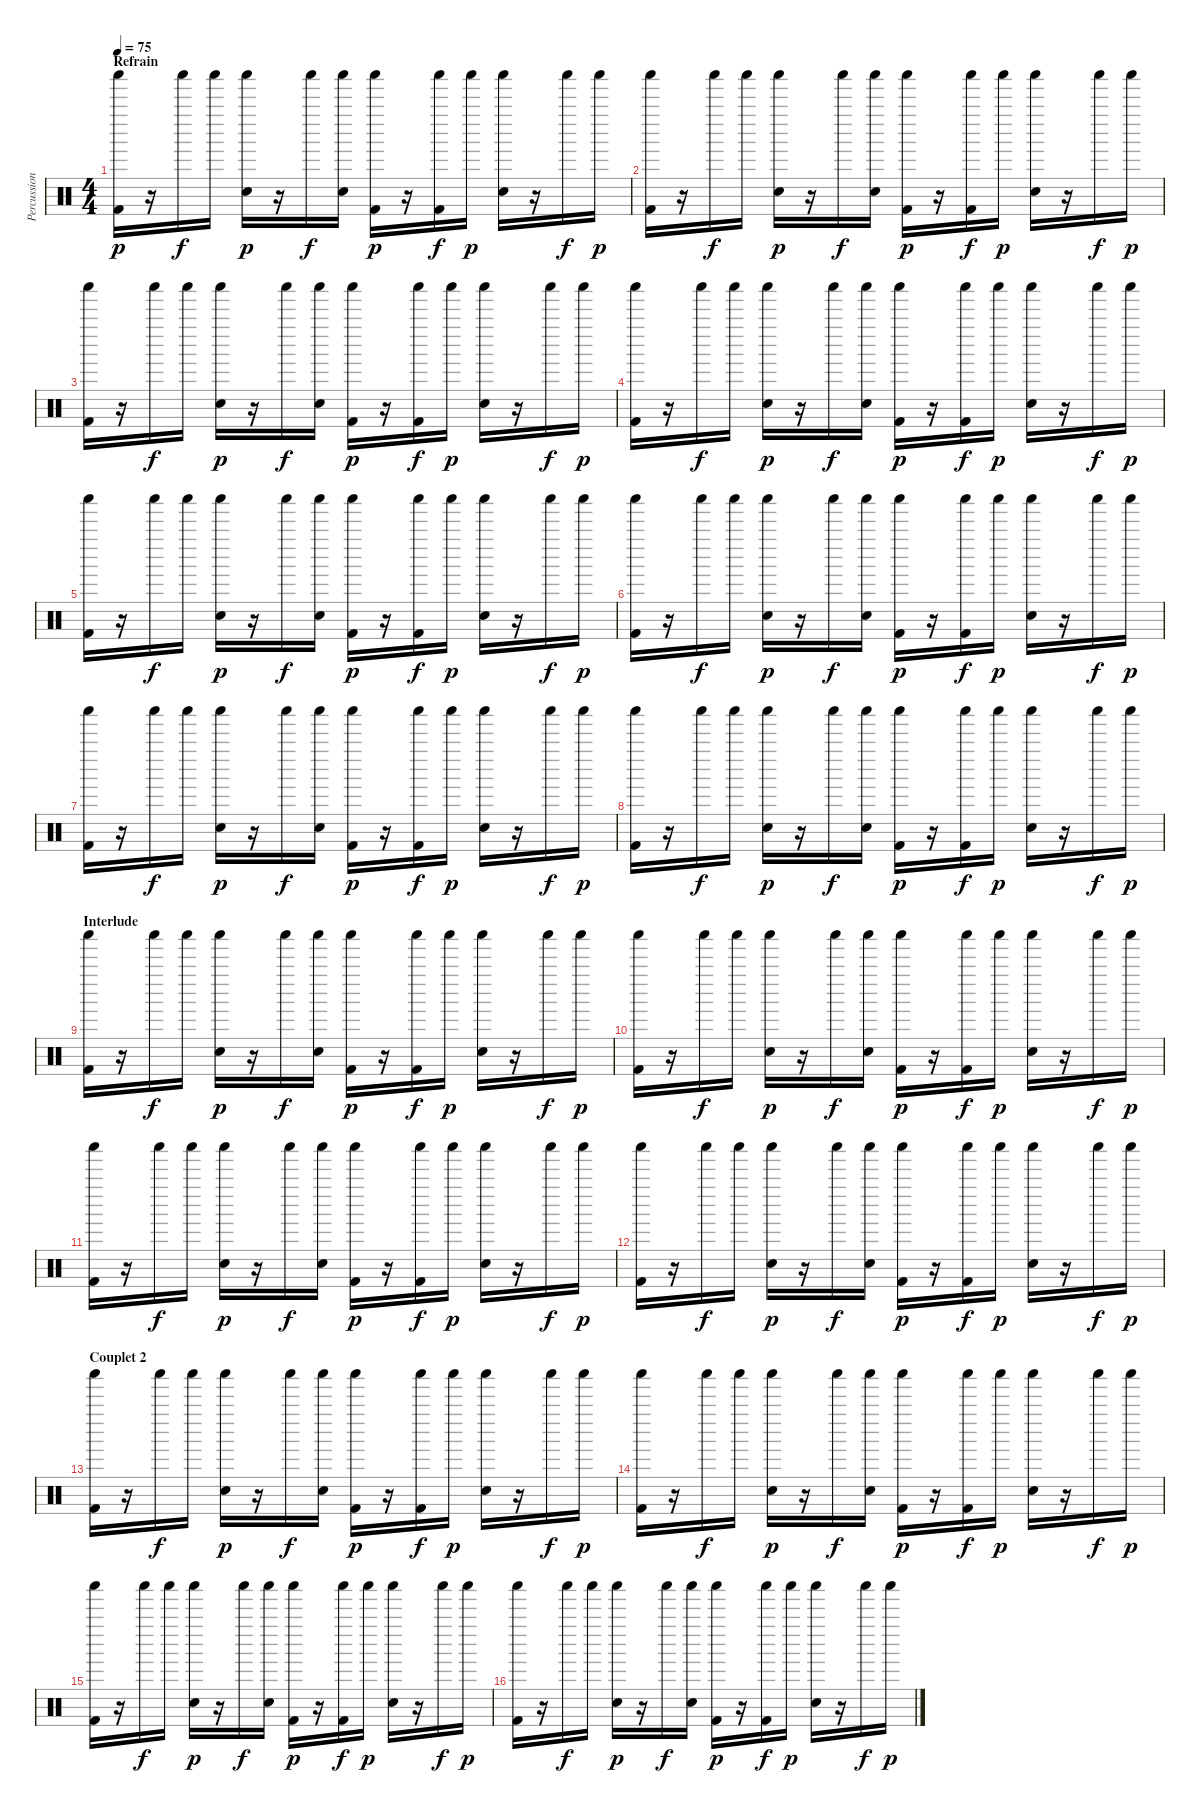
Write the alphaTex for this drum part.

\track ("Percussions - Dom Howard" "Percussion") {instrument percussion}
\staff {score}
\articulation defaults
\ts (4 4)
\section ("" "Refrain")
\tempo 75
\clef neutral
\ks c
("Kick (hit) 2" "Shaker (hit)").16{dy p} r.16 "Shaker (hit)".16{dy f} "Shaker (hit)".16 ("Electric Snare (hit)" "Shaker (hit)").16{dy p} r.16 "Shaker (hit)".16{dy f} ("Electric Snare (hit)" "Shaker (hit)").16 ("Kick (hit) 2" "Shaker (hit)").16{dy p} r.16 ("Kick (hit) 2" "Shaker (hit)").16{dy f} "Shaker (hit)".16{dy p} ("Electric Snare (hit)" "Shaker (hit)").16 r.16 "Shaker (hit)".16{dy f} "Shaker (hit)".16{dy p} |
("Kick (hit) 2" "Shaker (hit)").16 r.16 "Shaker (hit)".16{dy f} "Shaker (hit)".16 ("Electric Snare (hit)" "Shaker (hit)").16{dy p} r.16 "Shaker (hit)".16{dy f} ("Electric Snare (hit)" "Shaker (hit)").16 ("Kick (hit) 2" "Shaker (hit)").16{dy p} r.16 ("Kick (hit) 2" "Shaker (hit)").16{dy f} "Shaker (hit)".16{dy p} ("Electric Snare (hit)" "Shaker (hit)").16 r.16 "Shaker (hit)".16{dy f} "Shaker (hit)".16{dy p} |
("Kick (hit) 2" "Shaker (hit)").16 r.16 "Shaker (hit)".16{dy f} "Shaker (hit)".16 ("Electric Snare (hit)" "Shaker (hit)").16{dy p} r.16 "Shaker (hit)".16{dy f} ("Electric Snare (hit)" "Shaker (hit)").16 ("Kick (hit) 2" "Shaker (hit)").16{dy p} r.16 ("Kick (hit) 2" "Shaker (hit)").16{dy f} "Shaker (hit)".16{dy p} ("Electric Snare (hit)" "Shaker (hit)").16 r.16 "Shaker (hit)".16{dy f} "Shaker (hit)".16{dy p} |
("Kick (hit) 2" "Shaker (hit)").16 r.16 "Shaker (hit)".16{dy f} "Shaker (hit)".16 ("Electric Snare (hit)" "Shaker (hit)").16{dy p} r.16 "Shaker (hit)".16{dy f} ("Electric Snare (hit)" "Shaker (hit)").16 ("Kick (hit) 2" "Shaker (hit)").16{dy p} r.16 ("Kick (hit) 2" "Shaker (hit)").16{dy f} "Shaker (hit)".16{dy p} ("Electric Snare (hit)" "Shaker (hit)").16 r.16 "Shaker (hit)".16{dy f} "Shaker (hit)".16{dy p} |
("Kick (hit) 2" "Shaker (hit)").16 r.16 "Shaker (hit)".16{dy f} "Shaker (hit)".16 ("Electric Snare (hit)" "Shaker (hit)").16{dy p} r.16 "Shaker (hit)".16{dy f} ("Electric Snare (hit)" "Shaker (hit)").16 ("Kick (hit) 2" "Shaker (hit)").16{dy p} r.16 ("Kick (hit) 2" "Shaker (hit)").16{dy f} "Shaker (hit)".16{dy p} ("Electric Snare (hit)" "Shaker (hit)").16 r.16 "Shaker (hit)".16{dy f} "Shaker (hit)".16{dy p} |
("Kick (hit) 2" "Shaker (hit)").16 r.16 "Shaker (hit)".16{dy f} "Shaker (hit)".16 ("Electric Snare (hit)" "Shaker (hit)").16{dy p} r.16 "Shaker (hit)".16{dy f} ("Electric Snare (hit)" "Shaker (hit)").16 ("Kick (hit) 2" "Shaker (hit)").16{dy p} r.16 ("Kick (hit) 2" "Shaker (hit)").16{dy f} "Shaker (hit)".16{dy p} ("Electric Snare (hit)" "Shaker (hit)").16 r.16 "Shaker (hit)".16{dy f} "Shaker (hit)".16{dy p} |
("Kick (hit) 2" "Shaker (hit)").16 r.16 "Shaker (hit)".16{dy f} "Shaker (hit)".16 ("Electric Snare (hit)" "Shaker (hit)").16{dy p} r.16 "Shaker (hit)".16{dy f} ("Electric Snare (hit)" "Shaker (hit)").16 ("Kick (hit) 2" "Shaker (hit)").16{dy p} r.16 ("Kick (hit) 2" "Shaker (hit)").16{dy f} "Shaker (hit)".16{dy p} ("Electric Snare (hit)" "Shaker (hit)").16 r.16 "Shaker (hit)".16{dy f} "Shaker (hit)".16{dy p} |
("Kick (hit) 2" "Shaker (hit)").16 r.16 "Shaker (hit)".16{dy f} "Shaker (hit)".16 ("Electric Snare (hit)" "Shaker (hit)").16{dy p} r.16 "Shaker (hit)".16{dy f} ("Electric Snare (hit)" "Shaker (hit)").16 ("Kick (hit) 2" "Shaker (hit)").16{dy p} r.16 ("Kick (hit) 2" "Shaker (hit)").16{dy f} "Shaker (hit)".16{dy p} ("Electric Snare (hit)" "Shaker (hit)").16 r.16 "Shaker (hit)".16{dy f} "Shaker (hit)".16{dy p} |
\section ("" "Interlude")
("Kick (hit) 2" "Shaker (hit)").16 r.16 "Shaker (hit)".16{dy f} "Shaker (hit)".16 ("Electric Snare (hit)" "Shaker (hit)").16{dy p} r.16 "Shaker (hit)".16{dy f} ("Electric Snare (hit)" "Shaker (hit)").16 ("Kick (hit) 2" "Shaker (hit)").16{dy p} r.16 ("Kick (hit) 2" "Shaker (hit)").16{dy f} "Shaker (hit)".16{dy p} ("Electric Snare (hit)" "Shaker (hit)").16 r.16 "Shaker (hit)".16{dy f} "Shaker (hit)".16{dy p} |
("Kick (hit) 2" "Shaker (hit)").16 r.16 "Shaker (hit)".16{dy f} "Shaker (hit)".16 ("Electric Snare (hit)" "Shaker (hit)").16{dy p} r.16 "Shaker (hit)".16{dy f} ("Electric Snare (hit)" "Shaker (hit)").16 ("Kick (hit) 2" "Shaker (hit)").16{dy p} r.16 ("Kick (hit) 2" "Shaker (hit)").16{dy f} "Shaker (hit)".16{dy p} ("Electric Snare (hit)" "Shaker (hit)").16 r.16 "Shaker (hit)".16{dy f} "Shaker (hit)".16{dy p} |
("Kick (hit) 2" "Shaker (hit)").16 r.16 "Shaker (hit)".16{dy f} "Shaker (hit)".16 ("Electric Snare (hit)" "Shaker (hit)").16{dy p} r.16 "Shaker (hit)".16{dy f} ("Electric Snare (hit)" "Shaker (hit)").16 ("Kick (hit) 2" "Shaker (hit)").16{dy p} r.16 ("Kick (hit) 2" "Shaker (hit)").16{dy f} "Shaker (hit)".16{dy p} ("Electric Snare (hit)" "Shaker (hit)").16 r.16 "Shaker (hit)".16{dy f} "Shaker (hit)".16{dy p} |
("Kick (hit) 2" "Shaker (hit)").16 r.16 "Shaker (hit)".16{dy f} "Shaker (hit)".16 ("Electric Snare (hit)" "Shaker (hit)").16{dy p} r.16 "Shaker (hit)".16{dy f} ("Electric Snare (hit)" "Shaker (hit)").16 ("Kick (hit) 2" "Shaker (hit)").16{dy p} r.16 ("Kick (hit) 2" "Shaker (hit)").16{dy f} "Shaker (hit)".16{dy p} ("Electric Snare (hit)" "Shaker (hit)").16 r.16 "Shaker (hit)".16{dy f} "Shaker (hit)".16{dy p} |
\section ("" "Couplet 2")
("Kick (hit) 2" "Shaker (hit)").16 r.16 "Shaker (hit)".16{dy f} "Shaker (hit)".16 ("Electric Snare (hit)" "Shaker (hit)").16{dy p} r.16 "Shaker (hit)".16{dy f} ("Electric Snare (hit)" "Shaker (hit)").16 ("Kick (hit) 2" "Shaker (hit)").16{dy p} r.16 ("Kick (hit) 2" "Shaker (hit)").16{dy f} "Shaker (hit)".16{dy p} ("Electric Snare (hit)" "Shaker (hit)").16 r.16 "Shaker (hit)".16{dy f} "Shaker (hit)".16{dy p} |
("Kick (hit) 2" "Shaker (hit)").16 r.16 "Shaker (hit)".16{dy f} "Shaker (hit)".16 ("Electric Snare (hit)" "Shaker (hit)").16{dy p} r.16 "Shaker (hit)".16{dy f} ("Electric Snare (hit)" "Shaker (hit)").16 ("Kick (hit) 2" "Shaker (hit)").16{dy p} r.16 ("Kick (hit) 2" "Shaker (hit)").16{dy f} "Shaker (hit)".16{dy p} ("Electric Snare (hit)" "Shaker (hit)").16 r.16 "Shaker (hit)".16{dy f} "Shaker (hit)".16{dy p} |
("Kick (hit) 2" "Shaker (hit)").16 r.16 "Shaker (hit)".16{dy f} "Shaker (hit)".16 ("Electric Snare (hit)" "Shaker (hit)").16{dy p} r.16 "Shaker (hit)".16{dy f} ("Electric Snare (hit)" "Shaker (hit)").16 ("Kick (hit) 2" "Shaker (hit)").16{dy p} r.16 ("Kick (hit) 2" "Shaker (hit)").16{dy f} "Shaker (hit)".16{dy p} ("Electric Snare (hit)" "Shaker (hit)").16 r.16 "Shaker (hit)".16{dy f} "Shaker (hit)".16{dy p} |
("Kick (hit) 2" "Shaker (hit)").16 r.16 "Shaker (hit)".16{dy f} "Shaker (hit)".16 ("Electric Snare (hit)" "Shaker (hit)").16{dy p} r.16 "Shaker (hit)".16{dy f} ("Electric Snare (hit)" "Shaker (hit)").16 ("Kick (hit) 2" "Shaker (hit)").16{dy p} r.16 ("Kick (hit) 2" "Shaker (hit)").16{dy f} "Shaker (hit)".16{dy p} ("Electric Snare (hit)" "Shaker (hit)").16 r.16 "Shaker (hit)".16{dy f} "Shaker (hit)".16{dy p}
